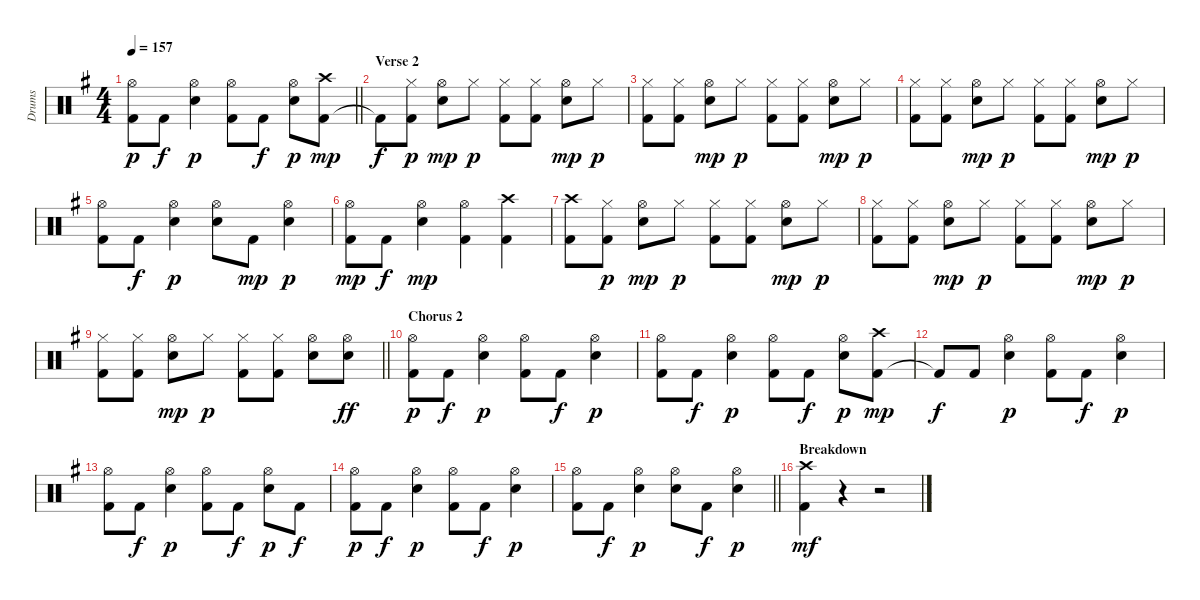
\track ("Drums" "Drums") {instrument percussion}
\staff {score}
\articulation defaults
\ts (4 4)
\tempo 157
\clef neutral
\barLineRight lightlight
\ks g
("Kick (hit) 2" "Hi-Hat (open)").8{dy p} "Kick (hit) 2".8{dy f} ("Electric Snare (hit)" "Hi-Hat (open)").4{dy p} ("Kick (hit) 2" "Hi-Hat (open)").8 "Kick (hit) 2".8{dy f} ("Electric Snare (hit)" "Hi-Hat (open)").8{dy p} ("Kick (hit) 2" "Crash high (hit)").8{dy mp} |
\section ("" "Verse 2")
"Kick (hit) 2"{t}.8{dy f} ("Kick (hit) 2" "Hi-Hat (closed)").8{dy p} ("Electric Snare (hit)" "Hi-Hat (open)").8{dy mp} "Hi-Hat (closed)".8{dy p} ("Kick (hit) 2" "Hi-Hat (closed)").8 ("Kick (hit) 2" "Hi-Hat (closed)").8 ("Electric Snare (hit)" "Hi-Hat (open)").8{dy mp} "Hi-Hat (closed)".8{dy p} |
("Kick (hit) 2" "Hi-Hat (closed)").8 ("Kick (hit) 2" "Hi-Hat (closed)").8 ("Electric Snare (hit)" "Hi-Hat (open)").8{dy mp} "Hi-Hat (closed)".8{dy p} ("Kick (hit) 2" "Hi-Hat (closed)").8 ("Kick (hit) 2" "Hi-Hat (closed)").8 ("Electric Snare (hit)" "Hi-Hat (open)").8{dy mp} "Hi-Hat (closed)".8{dy p} |
("Kick (hit) 2" "Hi-Hat (closed)").8 ("Kick (hit) 2" "Hi-Hat (closed)").8 ("Electric Snare (hit)" "Hi-Hat (open)").8{dy mp} "Hi-Hat (closed)".8{dy p} ("Kick (hit) 2" "Hi-Hat (closed)").8 ("Kick (hit) 2" "Hi-Hat (closed)").8 ("Electric Snare (hit)" "Hi-Hat (open)").8{dy mp} "Hi-Hat (closed)".8{dy p} |
("Kick (hit) 2" "Hi-Hat (open)").8 "Kick (hit) 2".8{dy f} ("Electric Snare (hit)" "Hi-Hat (open)").4{dy p} ("Electric Snare (hit)" "Hi-Hat (open)").8 "Kick (hit) 2".8{dy mp} ("Electric Snare (hit)" "Hi-Hat (open)").4{dy p} |
("Kick (hit) 2" "Hi-Hat (open)").8{dy mp} "Kick (hit) 2".8{dy f} ("Electric Snare (hit)" "Hi-Hat (open)").4{dy mp} ("Kick (hit) 2" "Hi-Hat (open)").4 ("Kick (hit) 2" "Crash high (hit)").4 |
("Kick (hit) 2" "Crash high (hit)").8 ("Kick (hit) 2" "Hi-Hat (closed)").8{dy p} ("Electric Snare (hit)" "Hi-Hat (open)").8{dy mp} "Hi-Hat (closed)".8{dy p} ("Kick (hit) 2" "Hi-Hat (closed)").8 ("Kick (hit) 2" "Hi-Hat (closed)").8 ("Electric Snare (hit)" "Hi-Hat (open)").8{dy mp} "Hi-Hat (closed)".8{dy p} |
("Kick (hit) 2" "Hi-Hat (closed)").8 ("Kick (hit) 2" "Hi-Hat (closed)").8 ("Electric Snare (hit)" "Hi-Hat (open)").8{dy mp} "Hi-Hat (closed)".8{dy p} ("Kick (hit) 2" "Hi-Hat (closed)").8 ("Kick (hit) 2" "Hi-Hat (closed)").8 ("Electric Snare (hit)" "Hi-Hat (open)").8{dy mp} "Hi-Hat (closed)".8{dy p} |
\barLineRight lightlight
("Kick (hit) 2" "Hi-Hat (closed)").8 ("Kick (hit) 2" "Hi-Hat (closed)").8 ("Electric Snare (hit)" "Hi-Hat (open)").8{dy mp} "Hi-Hat (closed)".8{dy p} ("Kick (hit) 2" "Hi-Hat (closed)").8 ("Kick (hit) 2" "Hi-Hat (closed)").8 ("Electric Snare (hit)" "Hi-Hat (open)").8 ("Hi-Hat (open)" "Electric Snare (hit)").8{dy ff} |
\section ("" "Chorus 2")
("Kick (hit) 2" "Hi-Hat (open)").8{dy p} "Kick (hit) 2".8{dy f} ("Electric Snare (hit)" "Hi-Hat (open)").4{dy p} ("Kick (hit) 2" "Hi-Hat (open)").8 "Kick (hit) 2".8{dy f} ("Electric Snare (hit)" "Hi-Hat (open)").4{dy p} |
("Kick (hit) 2" "Hi-Hat (open)").8 "Kick (hit) 2".8{dy f} ("Electric Snare (hit)" "Hi-Hat (open)").4{dy p} ("Kick (hit) 2" "Hi-Hat (open)").8 "Kick (hit) 2".8{dy f} ("Electric Snare (hit)" "Hi-Hat (open)").8{dy p} ("Kick (hit) 2" "Crash high (hit)").8{dy mp} |
"Kick (hit) 2"{t}.8{dy f} "Kick (hit) 2".8 ("Electric Snare (hit)" "Hi-Hat (open)").4{dy p} ("Kick (hit) 2" "Hi-Hat (open)").8 "Kick (hit) 2".8{dy f} ("Electric Snare (hit)" "Hi-Hat (open)").4{dy p} |
("Kick (hit) 2" "Hi-Hat (open)").8 "Kick (hit) 2".8{dy f} ("Electric Snare (hit)" "Hi-Hat (open)").4{dy p} ("Kick (hit) 2" "Hi-Hat (open)").8 "Kick (hit) 2".8{dy f} ("Electric Snare (hit)" "Hi-Hat (open)").8{dy p} "Kick (hit) 2".8{dy f} |
("Kick (hit) 2" "Hi-Hat (open)").8{dy p} "Kick (hit) 2".8{dy f} ("Electric Snare (hit)" "Hi-Hat (open)").4{dy p} ("Kick (hit) 2" "Hi-Hat (open)").8 "Kick (hit) 2".8{dy f} ("Electric Snare (hit)" "Hi-Hat (open)").4{dy p} |
\barLineRight lightlight
("Kick (hit) 2" "Hi-Hat (open)").8 "Kick (hit) 2".8{dy f} ("Electric Snare (hit)" "Hi-Hat (open)").4{dy p} ("Electric Snare (hit)" "Hi-Hat (open)").8 "Kick (hit) 2".8{dy f} ("Electric Snare (hit)" "Hi-Hat (open)").4{dy p} |
\section ("" "Breakdown")
("Kick (hit) 2" "Crash high (hit)").4{dy mf volume 0} r.4 r.2
